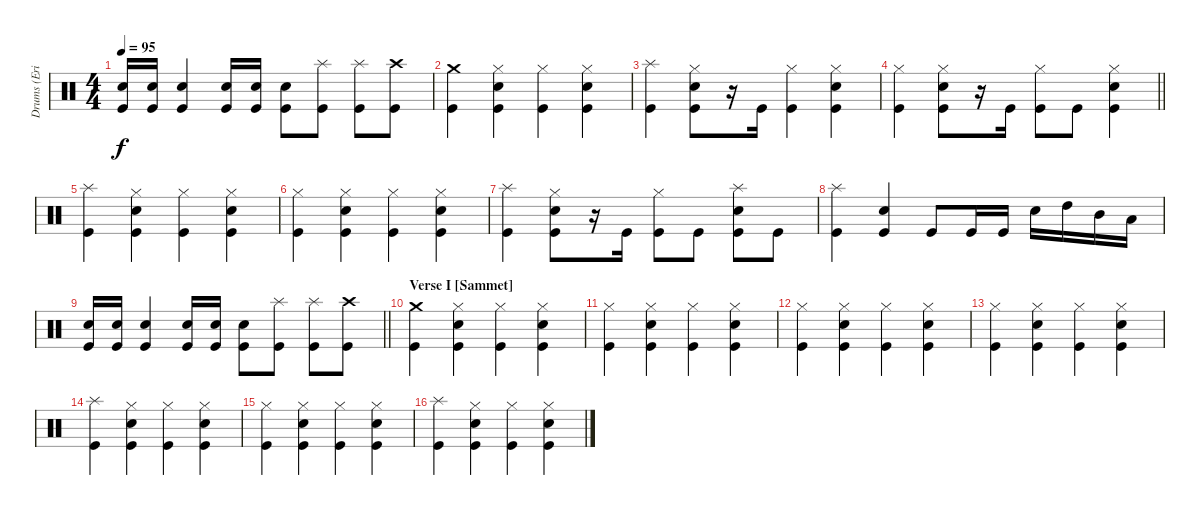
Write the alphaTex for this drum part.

\track ("Drums (Eric Singer)" "Drums (Eri") {instrument percussion}
\staff {score}
\articulation defaults
\ts (4 4)
\tempo 95
\clef neutral
\ks c
("Snare (hit) 2" "Kick (hit)").16{dy f} ("Snare (hit) 2" "Kick (hit)").16 ("Snare (hit) 2" "Kick (hit)").4 ("Snare (hit) 2" "Kick (hit)").16 ("Snare (hit) 2" "Kick (hit)").16 ("Snare (hit) 2" "Kick (hit)").8 ("Splash (hit)" "Kick (hit)").8 ("Splash (hit)" "Kick (hit)").8 ("Crash high (hit)" "Kick (hit)").8 |
("Crash medium (hit)" "Kick (hit)").4 ("Snare (hit) 2" "Kick (hit)" "Hi-Hat (closed)").4 ("Kick (hit)" "Hi-Hat (closed)").4 ("Snare (hit) 2" "Kick (hit)" "Hi-Hat (closed)").4 |
("Splash (hit)" "Kick (hit)").4 ("Snare (hit) 2" "Kick (hit)" "Hi-Hat (closed)").8 r.16 "Kick (hit)".16 ("Kick (hit)" "Hi-Hat (closed)").4 ("Snare (hit) 2" "Kick (hit)" "Hi-Hat (closed)").4 |
\barLineRight lightlight
("Kick (hit)" "Hi-Hat (closed)").4 ("Snare (hit) 2" "Kick (hit)" "Hi-Hat (closed)").8 r.16 "Kick (hit)".16 ("Kick (hit)" "Hi-Hat (closed)").8 "Kick (hit)".8 ("Snare (hit) 2" "Kick (hit)" "Hi-Hat (closed)").4 |
("Splash (hit)" "Kick (hit)").4 ("Snare (hit) 2" "Kick (hit)" "Hi-Hat (closed)").4 ("Kick (hit)" "Hi-Hat (closed)").4 ("Snare (hit) 2" "Kick (hit)" "Hi-Hat (closed)").4 |
("Kick (hit)" "Hi-Hat (closed)").4 ("Snare (hit) 2" "Kick (hit)" "Hi-Hat (closed)").4 ("Kick (hit)" "Hi-Hat (closed)").4 ("Snare (hit) 2" "Kick (hit)" "Hi-Hat (closed)").4 |
("Splash (hit)" "Kick (hit)").4 ("Snare (hit) 2" "Kick (hit)" "Hi-Hat (closed)").8 r.16 "Kick (hit)".16 ("Kick (hit)" "Hi-Hat (closed)").8 "Kick (hit)".8 ("Splash (hit)" "Snare (hit) 2" "Kick (hit)").8 "Kick (hit)".8 |
("Splash (hit)" "Kick (hit)").4 ("Snare (hit) 2" "Kick (hit)").4 "Kick (hit)".8 "Kick (hit)".16 "Kick (hit)".16 "Snare (hit) 2".16 "High Tom (hit)".16 "Mid Tom (hit)".16 "Low Tom (hit)".16 |
\barLineRight lightlight
("Snare (hit) 2" "Kick (hit)").16 ("Snare (hit) 2" "Kick (hit)").16 ("Snare (hit) 2" "Kick (hit)").4 ("Snare (hit) 2" "Kick (hit)").16 ("Snare (hit) 2" "Kick (hit)").16 ("Snare (hit) 2" "Kick (hit)").8 ("Splash (hit)" "Kick (hit)").8 ("Splash (hit)" "Kick (hit)").8 ("Crash high (hit)" "Kick (hit)").8 |
\section ("" "Verse I [Sammet]")
("Crash medium (hit)" "Kick (hit)").4 ("Snare (hit) 2" "Kick (hit)" "Hi-Hat (closed)").4 ("Kick (hit)" "Hi-Hat (closed)").4 ("Snare (hit) 2" "Kick (hit)" "Hi-Hat (closed)").4 |
("Kick (hit)" "Hi-Hat (closed)").4 ("Snare (hit) 2" "Kick (hit)" "Hi-Hat (closed)").4 ("Kick (hit)" "Hi-Hat (closed)").4 ("Snare (hit) 2" "Kick (hit)" "Hi-Hat (closed)").4 |
("Kick (hit)" "Hi-Hat (closed)").4 ("Snare (hit) 2" "Kick (hit)" "Hi-Hat (closed)").4 ("Kick (hit)" "Hi-Hat (closed)").4 ("Snare (hit) 2" "Kick (hit)" "Hi-Hat (closed)").4 |
("Kick (hit)" "Hi-Hat (closed)").4 ("Snare (hit) 2" "Kick (hit)" "Hi-Hat (closed)").4 ("Kick (hit)" "Hi-Hat (closed)").4 ("Snare (hit) 2" "Kick (hit)" "Hi-Hat (closed)").4 |
("Splash (hit)" "Kick (hit)").4 ("Snare (hit) 2" "Kick (hit)" "Hi-Hat (closed)").4 ("Kick (hit)" "Hi-Hat (closed)").4 ("Snare (hit) 2" "Kick (hit)" "Hi-Hat (closed)").4 |
("Kick (hit)" "Hi-Hat (closed)").4 ("Snare (hit) 2" "Kick (hit)" "Hi-Hat (closed)").4 ("Kick (hit)" "Hi-Hat (closed)").4 ("Snare (hit) 2" "Kick (hit)" "Hi-Hat (closed)").4 |
("Splash (hit)" "Kick (hit)").4 ("Snare (hit) 2" "Kick (hit)" "Hi-Hat (closed)").4 ("Kick (hit)" "Hi-Hat (closed)").4 ("Snare (hit) 2" "Kick (hit)" "Hi-Hat (closed)").4
